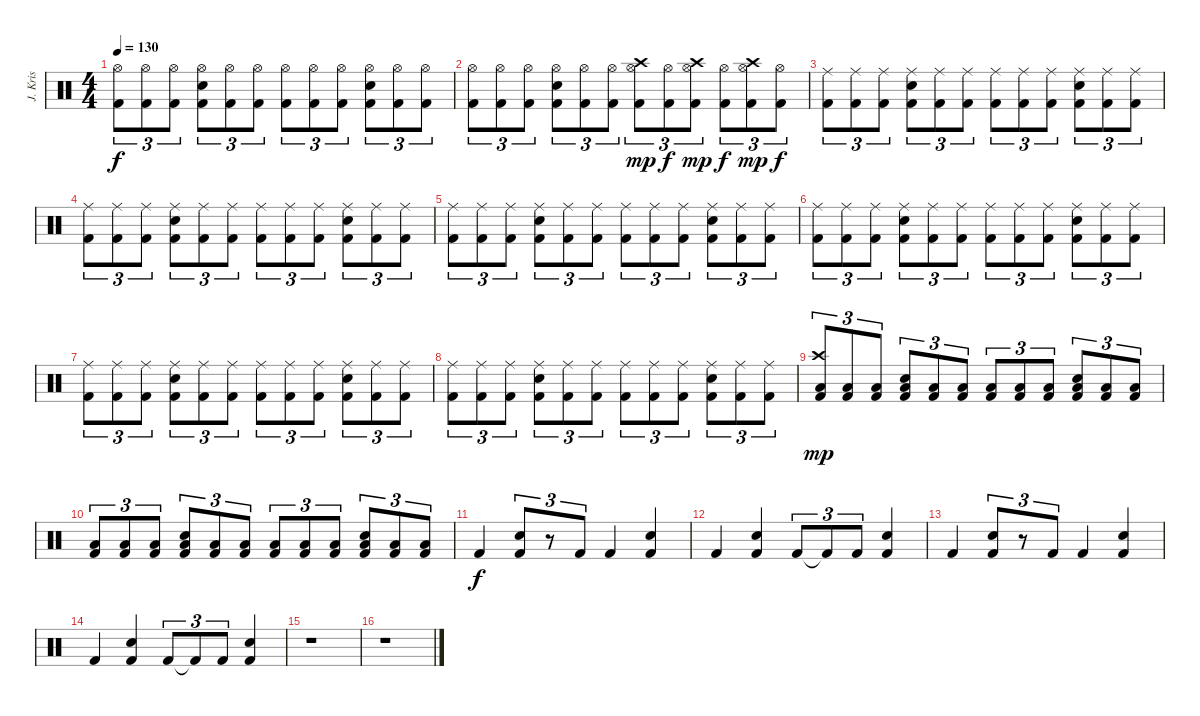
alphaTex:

\track ("   J. Kristensson (drums)" "   J. Kris") {instrument percussion}
\staff {score}
\articulation defaults
\ts (4 4)
\tempo 130
\clef neutral
\ks c
("Hi-Hat (open)" "Kick (hit) 2").8{tu (3 2) dy f} ("Hi-Hat (open)" "Kick (hit) 2").8{tu (3 2)} ("Hi-Hat (open)" "Kick (hit) 2").8{tu (3 2)} ("Hi-Hat (open)" "Electric Snare (hit)" "Kick (hit) 2").8{tu (3 2)} ("Hi-Hat (open)" "Kick (hit) 2").8{tu (3 2)} ("Hi-Hat (open)" "Kick (hit) 2").8{tu (3 2)} ("Hi-Hat (open)" "Kick (hit) 2").8{tu (3 2)} ("Hi-Hat (open)" "Kick (hit) 2").8{tu (3 2)} ("Hi-Hat (open)" "Kick (hit) 2").8{tu (3 2)} ("Hi-Hat (open)" "Electric Snare (hit)" "Kick (hit) 2").8{tu (3 2)} ("Hi-Hat (open)" "Kick (hit) 2").8{tu (3 2)} ("Hi-Hat (open)" "Kick (hit) 2").8{tu (3 2)} |
("Hi-Hat (open)" "Kick (hit) 2").8{tu (3 2)} ("Hi-Hat (open)" "Kick (hit) 2").8{tu (3 2)} ("Hi-Hat (open)" "Kick (hit) 2").8{tu (3 2)} ("Hi-Hat (open)" "Electric Snare (hit)" "Kick (hit) 2").8{tu (3 2)} ("Hi-Hat (open)" "Kick (hit) 2").8{tu (3 2)} ("Hi-Hat (open)" "Kick (hit) 2").8{tu (3 2)} ("Hi-Hat (open)" "Crash high (hit)" "Kick (hit) 2").8{tu (3 2) dy mp} ("Hi-Hat (open)" "Kick (hit) 2").8{tu (3 2) dy f} ("Hi-Hat (open)" "Crash high (hit)" "Kick (hit) 2").8{tu (3 2) dy mp} ("Hi-Hat (open)" "Kick (hit) 2").8{tu (3 2) dy f} ("Hi-Hat (open)" "Crash high (hit)" "Kick (hit) 2").8{tu (3 2) dy mp} ("Hi-Hat (open)" "Kick (hit) 2").8{tu (3 2) dy f} |
("Ride (middle)" "Kick (hit) 2").8{tu (3 2)} ("Ride (middle)" "Kick (hit) 2").8{tu (3 2)} ("Ride (middle)" "Kick (hit) 2").8{tu (3 2)} ("Ride (middle)" "Electric Snare (hit)" "Kick (hit) 2").8{tu (3 2)} ("Ride (middle)" "Kick (hit) 2").8{tu (3 2)} ("Ride (middle)" "Kick (hit) 2").8{tu (3 2)} ("Ride (middle)" "Kick (hit) 2").8{tu (3 2)} ("Ride (middle)" "Kick (hit) 2").8{tu (3 2)} ("Ride (middle)" "Kick (hit) 2").8{tu (3 2)} ("Ride (middle)" "Electric Snare (hit)" "Kick (hit) 2").8{tu (3 2)} ("Ride (middle)" "Kick (hit) 2").8{tu (3 2)} ("Ride (middle)" "Kick (hit) 2").8{tu (3 2)} |
("Ride (middle)" "Kick (hit) 2").8{tu (3 2)} ("Ride (middle)" "Kick (hit) 2").8{tu (3 2)} ("Ride (middle)" "Kick (hit) 2").8{tu (3 2)} ("Ride (middle)" "Electric Snare (hit)" "Kick (hit) 2").8{tu (3 2)} ("Ride (middle)" "Kick (hit) 2").8{tu (3 2)} ("Ride (middle)" "Kick (hit) 2").8{tu (3 2)} ("Ride (middle)" "Kick (hit) 2").8{tu (3 2)} ("Ride (middle)" "Kick (hit) 2").8{tu (3 2)} ("Ride (middle)" "Kick (hit) 2").8{tu (3 2)} ("Ride (middle)" "Electric Snare (hit)" "Kick (hit) 2").8{tu (3 2)} ("Ride (middle)" "Kick (hit) 2").8{tu (3 2)} ("Ride (middle)" "Kick (hit) 2").8{tu (3 2)} |
("Ride (middle)" "Kick (hit) 2").8{tu (3 2)} ("Ride (middle)" "Kick (hit) 2").8{tu (3 2)} ("Ride (middle)" "Kick (hit) 2").8{tu (3 2)} ("Ride (middle)" "Electric Snare (hit)" "Kick (hit) 2").8{tu (3 2)} ("Ride (middle)" "Kick (hit) 2").8{tu (3 2)} ("Ride (middle)" "Kick (hit) 2").8{tu (3 2)} ("Ride (middle)" "Kick (hit) 2").8{tu (3 2)} ("Ride (middle)" "Kick (hit) 2").8{tu (3 2)} ("Ride (middle)" "Kick (hit) 2").8{tu (3 2)} ("Ride (middle)" "Electric Snare (hit)" "Kick (hit) 2").8{tu (3 2)} ("Ride (middle)" "Kick (hit) 2").8{tu (3 2)} ("Ride (middle)" "Kick (hit) 2").8{tu (3 2)} |
("Ride (middle)" "Kick (hit) 2").8{tu (3 2)} ("Ride (middle)" "Kick (hit) 2").8{tu (3 2)} ("Ride (middle)" "Kick (hit) 2").8{tu (3 2)} ("Ride (middle)" "Electric Snare (hit)" "Kick (hit) 2").8{tu (3 2)} ("Ride (middle)" "Kick (hit) 2").8{tu (3 2)} ("Ride (middle)" "Kick (hit) 2").8{tu (3 2)} ("Ride (middle)" "Kick (hit) 2").8{tu (3 2)} ("Ride (middle)" "Kick (hit) 2").8{tu (3 2)} ("Ride (middle)" "Kick (hit) 2").8{tu (3 2)} ("Ride (middle)" "Electric Snare (hit)" "Kick (hit) 2").8{tu (3 2)} ("Ride (middle)" "Kick (hit) 2").8{tu (3 2)} ("Ride (middle)" "Kick (hit) 2").8{tu (3 2)} |
("Ride (middle)" "Kick (hit) 2").8{tu (3 2)} ("Ride (middle)" "Kick (hit) 2").8{tu (3 2)} ("Ride (middle)" "Kick (hit) 2").8{tu (3 2)} ("Ride (middle)" "Electric Snare (hit)" "Kick (hit) 2").8{tu (3 2)} ("Ride (middle)" "Kick (hit) 2").8{tu (3 2)} ("Ride (middle)" "Kick (hit) 2").8{tu (3 2)} ("Ride (middle)" "Kick (hit) 2").8{tu (3 2)} ("Ride (middle)" "Kick (hit) 2").8{tu (3 2)} ("Ride (middle)" "Kick (hit) 2").8{tu (3 2)} ("Ride (middle)" "Electric Snare (hit)" "Kick (hit) 2").8{tu (3 2)} ("Ride (middle)" "Kick (hit) 2").8{tu (3 2)} ("Ride (middle)" "Kick (hit) 2").8{tu (3 2)} |
("Ride (middle)" "Kick (hit) 2").8{tu (3 2)} ("Ride (middle)" "Kick (hit) 2").8{tu (3 2)} ("Ride (middle)" "Kick (hit) 2").8{tu (3 2)} ("Ride (middle)" "Electric Snare (hit)" "Kick (hit) 2").8{tu (3 2)} ("Ride (middle)" "Kick (hit) 2").8{tu (3 2)} ("Ride (middle)" "Kick (hit) 2").8{tu (3 2)} ("Ride (middle)" "Kick (hit) 2").8{tu (3 2)} ("Ride (middle)" "Kick (hit) 2").8{tu (3 2)} ("Ride (middle)" "Kick (hit) 2").8{tu (3 2)} ("Ride (middle)" "Electric Snare (hit)" "Kick (hit) 2").8{tu (3 2)} ("Ride (middle)" "Kick (hit) 2").8{tu (3 2)} ("Ride (middle)" "Kick (hit) 2").8{tu (3 2)} |
("Crash high (hit)" "Low Tom (hit)" "Kick (hit) 2").8{tu (3 2) dy mp} ("Low Tom (hit)" "Kick (hit) 2").8{tu (3 2)} ("Low Tom (hit)" "Kick (hit) 2").8{tu (3 2)} ("Low Tom (hit)" "Electric Snare (hit)" "Kick (hit) 2").8{tu (3 2)} ("Low Tom (hit)" "Kick (hit) 2").8{tu (3 2)} ("Low Tom (hit)" "Kick (hit) 2").8{tu (3 2)} ("Low Tom (hit)" "Kick (hit) 2").8{tu (3 2)} ("Low Tom (hit)" "Kick (hit) 2").8{tu (3 2)} ("Low Tom (hit)" "Kick (hit) 2").8{tu (3 2)} ("Low Tom (hit)" "Electric Snare (hit)" "Kick (hit) 2").8{tu (3 2)} ("Low Tom (hit)" "Kick (hit) 2").8{tu (3 2)} ("Low Tom (hit)" "Kick (hit) 2").8{tu (3 2)} |
("Low Tom (hit)" "Kick (hit) 2").8{tu (3 2)} ("Low Tom (hit)" "Kick (hit) 2").8{tu (3 2)} ("Low Tom (hit)" "Kick (hit) 2").8{tu (3 2)} ("Low Tom (hit)" "Electric Snare (hit)" "Kick (hit) 2").8{tu (3 2)} ("Low Tom (hit)" "Kick (hit) 2").8{tu (3 2)} ("Low Tom (hit)" "Kick (hit) 2").8{tu (3 2)} ("Low Tom (hit)" "Kick (hit) 2").8{tu (3 2)} ("Low Tom (hit)" "Kick (hit) 2").8{tu (3 2)} ("Low Tom (hit)" "Kick (hit) 2").8{tu (3 2)} ("Low Tom (hit)" "Electric Snare (hit)" "Kick (hit) 2").8{tu (3 2)} ("Low Tom (hit)" "Kick (hit) 2").8{tu (3 2)} ("Low Tom (hit)" "Kick (hit) 2").8{tu (3 2)} |
"Kick (hit) 2".4{dy f} ("Electric Snare (hit)" "Kick (hit) 2").8{tu (3 2)} r.8{tu (3 2)} "Kick (hit) 2".8{tu (3 2)} "Kick (hit) 2".4 ("Electric Snare (hit)" "Kick (hit) 2").4 |
"Kick (hit) 2".4 ("Electric Snare (hit)" "Kick (hit) 2").4 "Kick (hit) 2".8{tu (3 2)} "Kick (hit) 2"{t}.8{tu (3 2)} "Kick (hit) 2".8{tu (3 2)} ("Electric Snare (hit)" "Kick (hit) 2").4 |
"Kick (hit) 2".4 ("Electric Snare (hit)" "Kick (hit) 2").8{tu (3 2)} r.8{tu (3 2)} "Kick (hit) 2".8{tu (3 2)} "Kick (hit) 2".4 ("Electric Snare (hit)" "Kick (hit) 2").4 |
"Kick (hit) 2".4 ("Electric Snare (hit)" "Kick (hit) 2").4 "Kick (hit) 2".8{tu (3 2)} "Kick (hit) 2"{t}.8{tu (3 2)} "Kick (hit) 2".8{tu (3 2)} ("Electric Snare (hit)" "Kick (hit) 2").4 |
r.1 |
r.1
